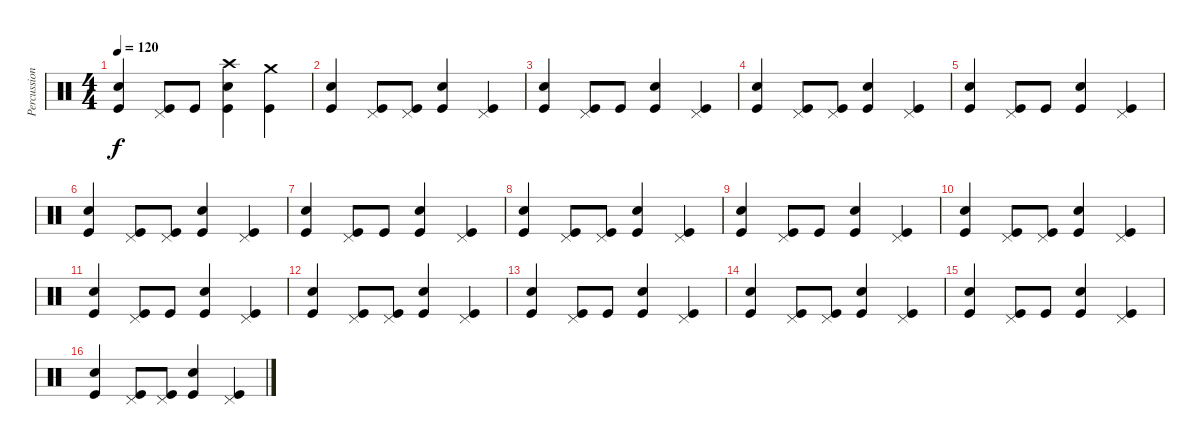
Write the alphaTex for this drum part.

\track ("Percussion" "Percussion") {instrument percussion}
\staff {score}
\articulation defaults
\ts (4 4)
\tempo 120
\clef neutral
\ks c
("Snare (hit) 2" "Kick (hit)").4{dy f} ("Pedal Hi-Hat (hit)" "Kick (hit)").8 "Kick (hit)".8 ("Crash high (hit)" "Snare (hit) 2" "Kick (hit)").4 ("Crash medium (hit)" "Kick (hit)").4 |
("Snare (hit) 2" "Kick (hit)").4 ("Pedal Hi-Hat (hit)" "Kick (hit)").8 ("Pedal Hi-Hat (hit)" "Kick (hit)").8 ("Snare (hit) 2" "Kick (hit)").4 ("Pedal Hi-Hat (hit)" "Kick (hit)").4 |
("Snare (hit) 2" "Kick (hit)").4 ("Pedal Hi-Hat (hit)" "Kick (hit)").8 "Kick (hit)".8 ("Snare (hit) 2" "Kick (hit)").4 ("Pedal Hi-Hat (hit)" "Kick (hit)").4 |
("Snare (hit) 2" "Kick (hit)").4 ("Pedal Hi-Hat (hit)" "Kick (hit)").8 ("Pedal Hi-Hat (hit)" "Kick (hit)").8 ("Snare (hit) 2" "Kick (hit)").4 ("Pedal Hi-Hat (hit)" "Kick (hit)").4 |
("Snare (hit) 2" "Kick (hit)").4 ("Pedal Hi-Hat (hit)" "Kick (hit)").8 "Kick (hit)".8 ("Snare (hit) 2" "Kick (hit)").4 ("Pedal Hi-Hat (hit)" "Kick (hit)").4 |
("Snare (hit) 2" "Kick (hit)").4 ("Pedal Hi-Hat (hit)" "Kick (hit)").8 ("Pedal Hi-Hat (hit)" "Kick (hit)").8 ("Snare (hit) 2" "Kick (hit)").4 ("Pedal Hi-Hat (hit)" "Kick (hit)").4 |
("Snare (hit) 2" "Kick (hit)").4 ("Pedal Hi-Hat (hit)" "Kick (hit)").8 "Kick (hit)".8 ("Snare (hit) 2" "Kick (hit)").4 ("Pedal Hi-Hat (hit)" "Kick (hit)").4 |
("Snare (hit) 2" "Kick (hit)").4 ("Pedal Hi-Hat (hit)" "Kick (hit)").8 ("Pedal Hi-Hat (hit)" "Kick (hit)").8 ("Snare (hit) 2" "Kick (hit)").4 ("Pedal Hi-Hat (hit)" "Kick (hit)").4 |
("Snare (hit) 2" "Kick (hit)").4 ("Pedal Hi-Hat (hit)" "Kick (hit)").8 "Kick (hit)".8 ("Snare (hit) 2" "Kick (hit)").4 ("Pedal Hi-Hat (hit)" "Kick (hit)").4 |
("Snare (hit) 2" "Kick (hit)").4 ("Pedal Hi-Hat (hit)" "Kick (hit)").8 ("Pedal Hi-Hat (hit)" "Kick (hit)").8 ("Snare (hit) 2" "Kick (hit)").4 ("Pedal Hi-Hat (hit)" "Kick (hit)").4 |
("Snare (hit) 2" "Kick (hit)").4 ("Pedal Hi-Hat (hit)" "Kick (hit)").8 "Kick (hit)".8 ("Snare (hit) 2" "Kick (hit)").4 ("Pedal Hi-Hat (hit)" "Kick (hit)").4 |
("Snare (hit) 2" "Kick (hit)").4 ("Pedal Hi-Hat (hit)" "Kick (hit)").8 ("Pedal Hi-Hat (hit)" "Kick (hit)").8 ("Snare (hit) 2" "Kick (hit)").4 ("Pedal Hi-Hat (hit)" "Kick (hit)").4 |
("Snare (hit) 2" "Kick (hit)").4 ("Pedal Hi-Hat (hit)" "Kick (hit)").8 "Kick (hit)".8 ("Snare (hit) 2" "Kick (hit)").4 ("Pedal Hi-Hat (hit)" "Kick (hit)").4 |
("Snare (hit) 2" "Kick (hit)").4 ("Pedal Hi-Hat (hit)" "Kick (hit)").8 ("Pedal Hi-Hat (hit)" "Kick (hit)").8 ("Snare (hit) 2" "Kick (hit)").4 ("Pedal Hi-Hat (hit)" "Kick (hit)").4 |
("Snare (hit) 2" "Kick (hit)").4 ("Pedal Hi-Hat (hit)" "Kick (hit)").8 "Kick (hit)".8 ("Snare (hit) 2" "Kick (hit)").4 ("Pedal Hi-Hat (hit)" "Kick (hit)").4 |
("Snare (hit) 2" "Kick (hit)").4 ("Pedal Hi-Hat (hit)" "Kick (hit)").8 ("Pedal Hi-Hat (hit)" "Kick (hit)").8 ("Snare (hit) 2" "Kick (hit)").4 ("Pedal Hi-Hat (hit)" "Kick (hit)").4
